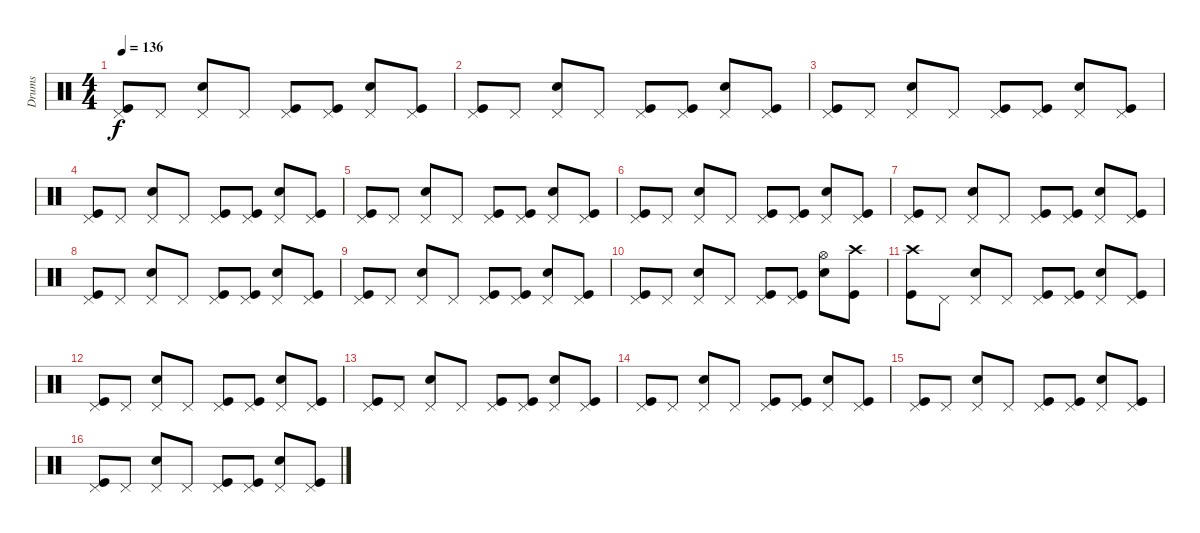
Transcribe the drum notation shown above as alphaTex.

\track ("Drums" "Drums") {instrument percussion}
\staff {score}
\articulation defaults
\ts (4 4)
\tempo 136
\clef neutral
\ks c
("Pedal Hi-Hat (hit)" "Kick (hit)").8{dy f} "Pedal Hi-Hat (hit)".8 ("Pedal Hi-Hat (hit)" "Electric Snare (hit)").8 "Pedal Hi-Hat (hit)".8 ("Pedal Hi-Hat (hit)" "Kick (hit)").8 ("Pedal Hi-Hat (hit)" "Kick (hit)").8 ("Pedal Hi-Hat (hit)" "Electric Snare (hit)").8 ("Pedal Hi-Hat (hit)" "Kick (hit)").8 |
("Pedal Hi-Hat (hit)" "Kick (hit)").8 "Pedal Hi-Hat (hit)".8 ("Pedal Hi-Hat (hit)" "Electric Snare (hit)").8 "Pedal Hi-Hat (hit)".8 ("Pedal Hi-Hat (hit)" "Kick (hit)").8 ("Pedal Hi-Hat (hit)" "Kick (hit)").8 ("Pedal Hi-Hat (hit)" "Electric Snare (hit)").8 ("Pedal Hi-Hat (hit)" "Kick (hit)").8 |
("Pedal Hi-Hat (hit)" "Kick (hit)").8 "Pedal Hi-Hat (hit)".8 ("Pedal Hi-Hat (hit)" "Electric Snare (hit)").8 "Pedal Hi-Hat (hit)".8 ("Pedal Hi-Hat (hit)" "Kick (hit)").8 ("Pedal Hi-Hat (hit)" "Kick (hit)").8 ("Pedal Hi-Hat (hit)" "Electric Snare (hit)").8 ("Pedal Hi-Hat (hit)" "Kick (hit)").8 |
("Pedal Hi-Hat (hit)" "Kick (hit)").8 "Pedal Hi-Hat (hit)".8 ("Pedal Hi-Hat (hit)" "Electric Snare (hit)").8 "Pedal Hi-Hat (hit)".8 ("Pedal Hi-Hat (hit)" "Kick (hit)").8 ("Pedal Hi-Hat (hit)" "Kick (hit)").8 ("Pedal Hi-Hat (hit)" "Electric Snare (hit)").8 ("Pedal Hi-Hat (hit)" "Kick (hit)").8 |
("Pedal Hi-Hat (hit)" "Kick (hit)").8 "Pedal Hi-Hat (hit)".8 ("Pedal Hi-Hat (hit)" "Electric Snare (hit)").8 "Pedal Hi-Hat (hit)".8 ("Pedal Hi-Hat (hit)" "Kick (hit)").8 ("Pedal Hi-Hat (hit)" "Kick (hit)").8 ("Pedal Hi-Hat (hit)" "Electric Snare (hit)").8 ("Pedal Hi-Hat (hit)" "Kick (hit)").8 |
("Pedal Hi-Hat (hit)" "Kick (hit)").8 "Pedal Hi-Hat (hit)".8 ("Pedal Hi-Hat (hit)" "Electric Snare (hit)").8 "Pedal Hi-Hat (hit)".8 ("Pedal Hi-Hat (hit)" "Kick (hit)").8 ("Pedal Hi-Hat (hit)" "Kick (hit)").8 ("Pedal Hi-Hat (hit)" "Electric Snare (hit)").8 ("Pedal Hi-Hat (hit)" "Kick (hit)").8 |
("Pedal Hi-Hat (hit)" "Kick (hit)").8 "Pedal Hi-Hat (hit)".8 ("Pedal Hi-Hat (hit)" "Electric Snare (hit)").8 "Pedal Hi-Hat (hit)".8 ("Pedal Hi-Hat (hit)" "Kick (hit)").8 ("Pedal Hi-Hat (hit)" "Kick (hit)").8 ("Pedal Hi-Hat (hit)" "Electric Snare (hit)").8 ("Pedal Hi-Hat (hit)" "Kick (hit)").8 |
("Pedal Hi-Hat (hit)" "Kick (hit)").8 "Pedal Hi-Hat (hit)".8 ("Pedal Hi-Hat (hit)" "Electric Snare (hit)").8 "Pedal Hi-Hat (hit)".8 ("Pedal Hi-Hat (hit)" "Kick (hit)").8 ("Pedal Hi-Hat (hit)" "Kick (hit)").8 ("Pedal Hi-Hat (hit)" "Electric Snare (hit)").8 ("Pedal Hi-Hat (hit)" "Kick (hit)").8 |
("Pedal Hi-Hat (hit)" "Kick (hit)").8 "Pedal Hi-Hat (hit)".8 ("Pedal Hi-Hat (hit)" "Electric Snare (hit)").8 "Pedal Hi-Hat (hit)".8 ("Pedal Hi-Hat (hit)" "Kick (hit)").8 ("Pedal Hi-Hat (hit)" "Kick (hit)").8 ("Pedal Hi-Hat (hit)" "Electric Snare (hit)").8 ("Pedal Hi-Hat (hit)" "Kick (hit)").8 |
("Pedal Hi-Hat (hit)" "Kick (hit)").8 "Pedal Hi-Hat (hit)".8 ("Pedal Hi-Hat (hit)" "Electric Snare (hit)").8 "Pedal Hi-Hat (hit)".8 ("Pedal Hi-Hat (hit)" "Kick (hit)").8 ("Pedal Hi-Hat (hit)" "Kick (hit)").8 ("Hi-Hat (open)" "Electric Snare (hit)").8 ("Crash high (hit)" "Kick (hit)").8 |
("Crash high (hit)" "Kick (hit)").8 "Pedal Hi-Hat (hit)".8 ("Pedal Hi-Hat (hit)" "Electric Snare (hit)").8 "Pedal Hi-Hat (hit)".8 ("Pedal Hi-Hat (hit)" "Kick (hit)").8 ("Pedal Hi-Hat (hit)" "Kick (hit)").8 ("Pedal Hi-Hat (hit)" "Electric Snare (hit)").8 ("Pedal Hi-Hat (hit)" "Kick (hit)").8 |
("Pedal Hi-Hat (hit)" "Kick (hit)").8 "Pedal Hi-Hat (hit)".8 ("Pedal Hi-Hat (hit)" "Electric Snare (hit)").8 "Pedal Hi-Hat (hit)".8 ("Pedal Hi-Hat (hit)" "Kick (hit)").8 ("Pedal Hi-Hat (hit)" "Kick (hit)").8 ("Pedal Hi-Hat (hit)" "Electric Snare (hit)").8 ("Pedal Hi-Hat (hit)" "Kick (hit)").8 |
("Pedal Hi-Hat (hit)" "Kick (hit)").8 "Pedal Hi-Hat (hit)".8 ("Pedal Hi-Hat (hit)" "Electric Snare (hit)").8 "Pedal Hi-Hat (hit)".8 ("Pedal Hi-Hat (hit)" "Kick (hit)").8 ("Pedal Hi-Hat (hit)" "Kick (hit)").8 ("Pedal Hi-Hat (hit)" "Electric Snare (hit)").8 ("Pedal Hi-Hat (hit)" "Kick (hit)").8 |
("Pedal Hi-Hat (hit)" "Kick (hit)").8 "Pedal Hi-Hat (hit)".8 ("Pedal Hi-Hat (hit)" "Electric Snare (hit)").8 "Pedal Hi-Hat (hit)".8 ("Pedal Hi-Hat (hit)" "Kick (hit)").8 ("Pedal Hi-Hat (hit)" "Kick (hit)").8 ("Pedal Hi-Hat (hit)" "Electric Snare (hit)").8 ("Pedal Hi-Hat (hit)" "Kick (hit)").8 |
("Pedal Hi-Hat (hit)" "Kick (hit)").8 "Pedal Hi-Hat (hit)".8 ("Pedal Hi-Hat (hit)" "Electric Snare (hit)").8 "Pedal Hi-Hat (hit)".8 ("Pedal Hi-Hat (hit)" "Kick (hit)").8 ("Pedal Hi-Hat (hit)" "Kick (hit)").8 ("Pedal Hi-Hat (hit)" "Electric Snare (hit)").8 ("Pedal Hi-Hat (hit)" "Kick (hit)").8 |
("Pedal Hi-Hat (hit)" "Kick (hit)").8 "Pedal Hi-Hat (hit)".8 ("Pedal Hi-Hat (hit)" "Electric Snare (hit)").8 "Pedal Hi-Hat (hit)".8 ("Pedal Hi-Hat (hit)" "Kick (hit)").8 ("Pedal Hi-Hat (hit)" "Kick (hit)").8 ("Pedal Hi-Hat (hit)" "Electric Snare (hit)").8 ("Pedal Hi-Hat (hit)" "Kick (hit)").8
